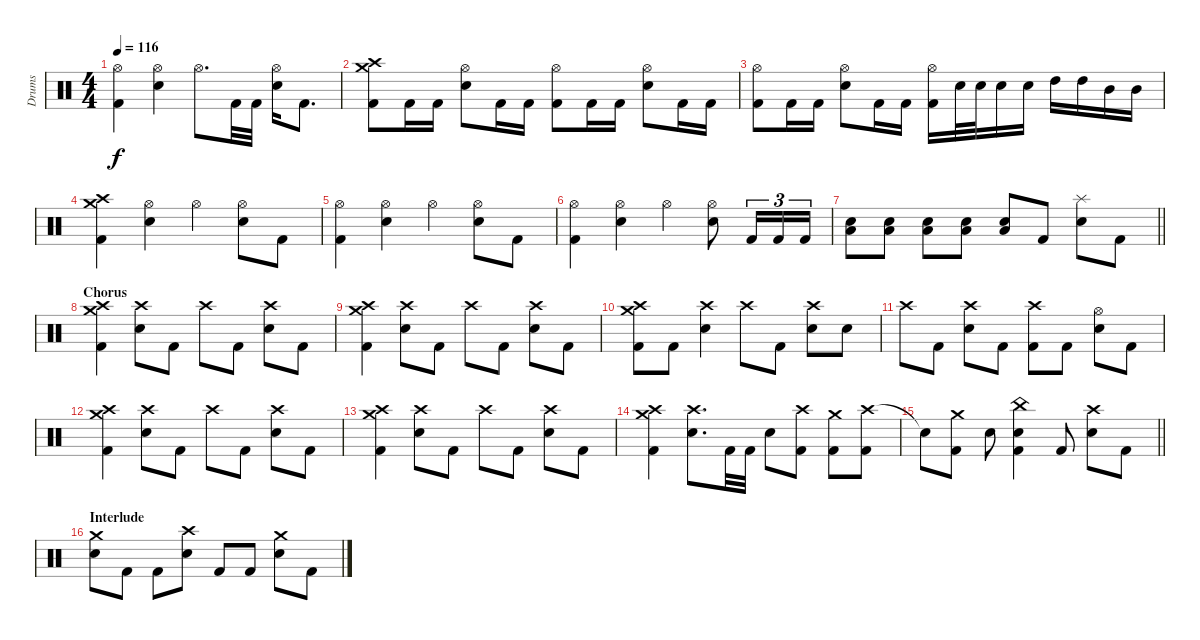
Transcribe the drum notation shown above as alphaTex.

\track ("Drums" "Drums") {instrument percussion}
\staff {score}
\articulation defaults
\ts (4 4)
\tempo 116
\clef neutral
\ks c
("Hi-Hat (open)" "Kick (hit) 2").4{dy f} ("Hi-Hat (open)" "Electric Snare (hit)").4 "Hi-Hat (open)".8{d} "Kick (hit) 2".32 "Kick (hit) 2".32 ("Hi-Hat (open)" "Electric Snare (hit)").16 "Kick (hit) 2".8{d} |
("Crash medium (hit)" "Crash high (hit)" "Kick (hit) 2").8 "Kick (hit) 2".16 "Kick (hit) 2".16 ("Hi-Hat (open)" "Electric Snare (hit)").8 "Kick (hit) 2".16 "Kick (hit) 2".16 ("Hi-Hat (open)" "Kick (hit) 2").8 "Kick (hit) 2".16 "Kick (hit) 2".16 ("Hi-Hat (open)" "Electric Snare (hit)").8 "Kick (hit) 2".16 "Kick (hit) 2".16 |
("Hi-Hat (open)" "Kick (hit) 2").8 "Kick (hit) 2".16 "Kick (hit) 2".16 ("Hi-Hat (open)" "Electric Snare (hit)").8 "Kick (hit) 2".16 "Kick (hit) 2".16 ("Hi-Hat (open)" "Kick (hit) 2").16 "Electric Snare (hit)".32 "Electric Snare (hit)".32 "Electric Snare (hit)".16 "Electric Snare (hit)".16 "High Tom (hit)".16 "High Tom (hit)".16 "Mid Tom (hit)".16 "Mid Tom (hit)".16 |
("Crash medium (hit)" "Crash high (hit)" "Kick (hit) 2").4 ("Hi-Hat (open)" "Electric Snare (hit)").4 "Hi-Hat (open)".4 ("Hi-Hat (open)" "Electric Snare (hit)").8 "Kick (hit) 2".8 |
("Hi-Hat (open)" "Kick (hit) 2").4 ("Hi-Hat (open)" "Electric Snare (hit)").4 "Hi-Hat (open)".4 ("Hi-Hat (open)" "Electric Snare (hit)").8 "Kick (hit) 2".8 |
("Hi-Hat (open)" "Kick (hit) 2").4 ("Hi-Hat (open)" "Electric Snare (hit)").4 "Hi-Hat (open)".4 ("Hi-Hat (open)" "Electric Snare (hit)").8 "Kick (hit) 2".16{tu (3 2)} "Kick (hit) 2".16{tu (3 2)} "Kick (hit) 2".16{tu (3 2)} |
\barLineRight lightlight
("Electric Snare (hit)" "Low Floor Tom (hit)").8 ("Electric Snare (hit)" "Low Floor Tom (hit)").8 ("Electric Snare (hit)" "Low Floor Tom (hit)").8 ("Electric Snare (hit)" "Low Floor Tom (hit)").8 ("Electric Snare (hit)" "Low Floor Tom (hit)").8 "Kick (hit) 2".8 ("Splash (hit)" "Electric Snare (hit)").8 "Kick (hit) 2".8 |
\section ("" "Chorus")
("Crash medium (hit)" "Crash high (hit)" "Kick (hit) 2").4 ("Crash high (hit)" "Electric Snare (hit)").8 "Kick (hit) 2".8 "Crash high (hit)".8 "Kick (hit) 2".8 ("Crash high (hit)" "Electric Snare (hit)").8 "Kick (hit) 2".8 |
("Crash medium (hit)" "Crash high (hit)" "Kick (hit) 2").4 ("Crash high (hit)" "Electric Snare (hit)").8 "Kick (hit) 2".8 "Crash high (hit)".8 "Kick (hit) 2".8 ("Crash high (hit)" "Electric Snare (hit)").8 "Kick (hit) 2".8 |
("Crash medium (hit)" "Crash high (hit)" "Kick (hit) 2").8 "Kick (hit) 2".8 ("Crash high (hit)" "Electric Snare (hit)").4 "Crash high (hit)".8 "Kick (hit) 2".8 ("Crash high (hit)" "Electric Snare (hit)").8 "Electric Snare (hit)".8 |
"Crash high (hit)".8 "Kick (hit) 2".8 ("Crash high (hit)" "Electric Snare (hit)").8 "Kick (hit) 2".8 ("Crash high (hit)" "Kick (hit) 2").8 "Kick (hit) 2".8 ("Hi-Hat (open)" "Electric Snare (hit)").8 "Kick (hit) 2".8 |
("Crash medium (hit)" "Crash high (hit)" "Kick (hit) 2").4 ("Crash high (hit)" "Electric Snare (hit)").8 "Kick (hit) 2".8 "Crash high (hit)".8 "Kick (hit) 2".8 ("Crash high (hit)" "Electric Snare (hit)").8 "Kick (hit) 2".8 |
("Crash medium (hit)" "Crash high (hit)" "Kick (hit) 2").4 ("Crash high (hit)" "Electric Snare (hit)").8 "Kick (hit) 2".8 "Crash high (hit)".8 "Kick (hit) 2".8 ("Crash high (hit)" "Electric Snare (hit)").8 "Kick (hit) 2".8 |
("Crash medium (hit)" "Crash high (hit)" "Kick (hit) 2").4 ("Crash high (hit)" "Electric Snare (hit)").8{d} "Kick (hit) 2".32 "Kick (hit) 2".32 "Electric Snare (hit)".8 ("Crash high (hit)" "Kick (hit) 2").8 ("Crash medium (hit)" "Kick (hit) 2").8 ("Crash high (hit)" "Kick (hit) 2").8 |
\barLineRight lightlight "Snare (hit)"{t}.8
("Crash medium (hit)" "Kick (hit) 2").8 "Electric Snare (hit)".8 ("China (hit)" "Electric Snare (hit)" "Kick (hit) 2").4 "Kick (hit) 2".8 ("Crash high (hit)" "Electric Snare (hit)").8 "Kick (hit) 2".8 |
\section ("" "Interlude")
("Crash medium (hit)" "Electric Snare (hit)").8 "Kick (hit) 2".8 "Kick (hit) 2".8 ("Crash high (hit)" "Electric Snare (hit)").8 "Kick (hit) 2".8 "Kick (hit) 2".8 ("Crash medium (hit)" "Electric Snare (hit)").8 "Kick (hit) 2".8
